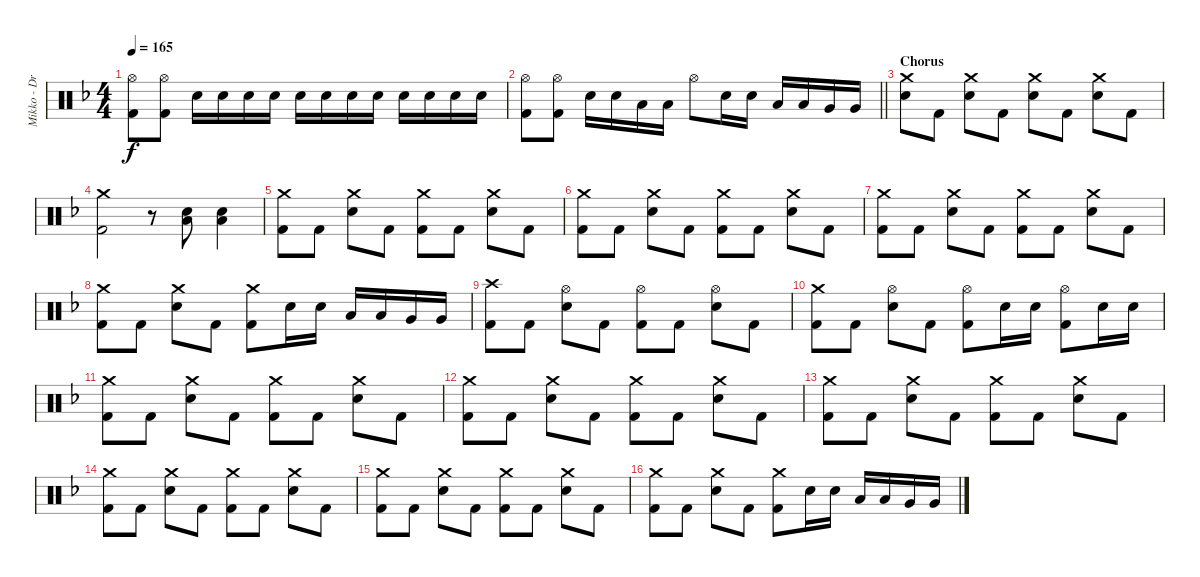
\track ("Mikko - Drums" "Mikko - Dr") {instrument percussion}
\staff {score}
\articulation defaults
\ts (4 4)
\tempo 165
\clef neutral
\ks dminor
("Hi-Hat (open)" "Kick (hit) 2").8{dy f} ("Hi-Hat (open)" "Kick (hit) 2").8 "Snare (hit) 2".16 "Snare (hit) 2".16 "Snare (hit) 2".16 "Snare (hit) 2".16 "Snare (hit) 2".16 "Snare (hit) 2".16 "Snare (hit) 2".16 "Snare (hit) 2".16 "Snare (hit) 2".16 "Snare (hit) 2".16 "Snare (hit) 2".16 "Snare (hit) 2".16 |
\barLineRight lightlight
("Hi-Hat (open)" "Kick (hit) 2").8 ("Hi-Hat (open)" "Kick (hit) 2").8 "Snare (hit) 2".16 "Snare (hit) 2".16 "Low Tom (hit)".16 "Low Tom (hit)".16 "Hi-Hat (open)".8 "Snare (hit) 2".16 "Snare (hit) 2".16 "Low Tom (hit)".16 "Low Tom (hit)".16 "Very Low Tom (hit)".16 "Very Low Tom (hit)".16 |
\section ("" "Chorus")
("Crash medium (hit)" "Snare (hit) 2").8 "Kick (hit) 2".8 ("Crash medium (hit)" "Snare (hit) 2").8 "Kick (hit) 2".8 ("Crash medium (hit)" "Snare (hit) 2").8 "Kick (hit) 2".8 ("Crash medium (hit)" "Snare (hit) 2").8 "Kick (hit) 2".8 |
("Crash medium (hit)" "Kick (hit) 2").2 r.8 ("Snare (hit) 2" "Low Tom (hit)").8 ("Snare (hit) 2" "Low Tom (hit)").4 |
("Crash medium (hit)" "Kick (hit) 2").8 "Kick (hit) 2".8 ("Crash medium (hit)" "Snare (hit) 2").8 "Kick (hit) 2".8 ("Crash medium (hit)" "Kick (hit) 2").8 "Kick (hit) 2".8 ("Crash medium (hit)" "Snare (hit) 2").8 "Kick (hit) 2".8 |
("Crash medium (hit)" "Kick (hit) 2").8 "Kick (hit) 2".8 ("Crash medium (hit)" "Snare (hit) 2").8 "Kick (hit) 2".8 ("Crash medium (hit)" "Kick (hit) 2").8 "Kick (hit) 2".8 ("Crash medium (hit)" "Snare (hit) 2").8 "Kick (hit) 2".8 |
("Crash medium (hit)" "Kick (hit) 2").8 "Kick (hit) 2".8 ("Crash medium (hit)" "Snare (hit) 2").8 "Kick (hit) 2".8 ("Crash medium (hit)" "Kick (hit) 2").8 "Kick (hit) 2".8 ("Crash medium (hit)" "Snare (hit) 2").8 "Kick (hit) 2".8 |
("Crash medium (hit)" "Kick (hit) 2").8 "Kick (hit) 2".8 ("Crash medium (hit)" "Snare (hit) 2").8 "Kick (hit) 2".8 ("Crash medium (hit)" "Kick (hit) 2").8 "Snare (hit) 2".16 "Snare (hit) 2".16 "Low Tom (hit)".16 "Low Tom (hit)".16 "Very Low Tom (hit)".16 "Very Low Tom (hit)".16 |
("Crash high (hit)" "Kick (hit) 2").8 "Kick (hit) 2".8 ("Hi-Hat (open)" "Snare (hit) 2").8 "Kick (hit) 2".8 ("Hi-Hat (open)" "Kick (hit) 2").8 "Kick (hit) 2".8 ("Hi-Hat (open)" "Snare (hit) 2").8 "Kick (hit) 2".8 |
("Crash medium (hit)" "Kick (hit) 2").8 "Kick (hit) 2".8 ("Hi-Hat (open)" "Snare (hit) 2").8 "Kick (hit) 2".8 ("Hi-Hat (open)" "Kick (hit) 2").8 "Snare (hit) 2".16 "Snare (hit) 2".16 ("Hi-Hat (open)" "Kick (hit) 2").8 "Snare (hit) 2".16 "Snare (hit) 2".16 |
("Crash medium (hit)" "Kick (hit) 2").8 "Kick (hit) 2".8 ("Crash medium (hit)" "Snare (hit) 2").8 "Kick (hit) 2".8 ("Crash medium (hit)" "Kick (hit) 2").8 "Kick (hit) 2".8 ("Crash medium (hit)" "Snare (hit) 2").8 "Kick (hit) 2".8 |
("Crash medium (hit)" "Kick (hit) 2").8 "Kick (hit) 2".8 ("Crash medium (hit)" "Snare (hit) 2").8 "Kick (hit) 2".8 ("Crash medium (hit)" "Kick (hit) 2").8 "Kick (hit) 2".8 ("Crash medium (hit)" "Snare (hit) 2").8 "Kick (hit) 2".8 |
("Crash medium (hit)" "Kick (hit) 2").8 "Kick (hit) 2".8 ("Crash medium (hit)" "Snare (hit) 2").8 "Kick (hit) 2".8 ("Crash medium (hit)" "Kick (hit) 2").8 "Kick (hit) 2".8 ("Crash medium (hit)" "Snare (hit) 2").8 "Kick (hit) 2".8 |
("Crash medium (hit)" "Kick (hit) 2").8 "Kick (hit) 2".8 ("Crash medium (hit)" "Snare (hit) 2").8 "Kick (hit) 2".8 ("Crash medium (hit)" "Kick (hit) 2").8 "Kick (hit) 2".8 ("Crash medium (hit)" "Snare (hit) 2").8 "Kick (hit) 2".8 |
("Crash medium (hit)" "Kick (hit) 2").8 "Kick (hit) 2".8 ("Crash medium (hit)" "Snare (hit) 2").8 "Kick (hit) 2".8 ("Crash medium (hit)" "Kick (hit) 2").8 "Kick (hit) 2".8 ("Crash medium (hit)" "Snare (hit) 2").8 "Kick (hit) 2".8 |
("Crash medium (hit)" "Kick (hit) 2").8 "Kick (hit) 2".8 ("Crash medium (hit)" "Snare (hit) 2").8 "Kick (hit) 2".8 ("Crash medium (hit)" "Kick (hit) 2").8 "Snare (hit) 2".16 "Snare (hit) 2".16 "Low Tom (hit)".16 "Low Tom (hit)".16 "Very Low Tom (hit)".16 "Very Low Tom (hit)".16
